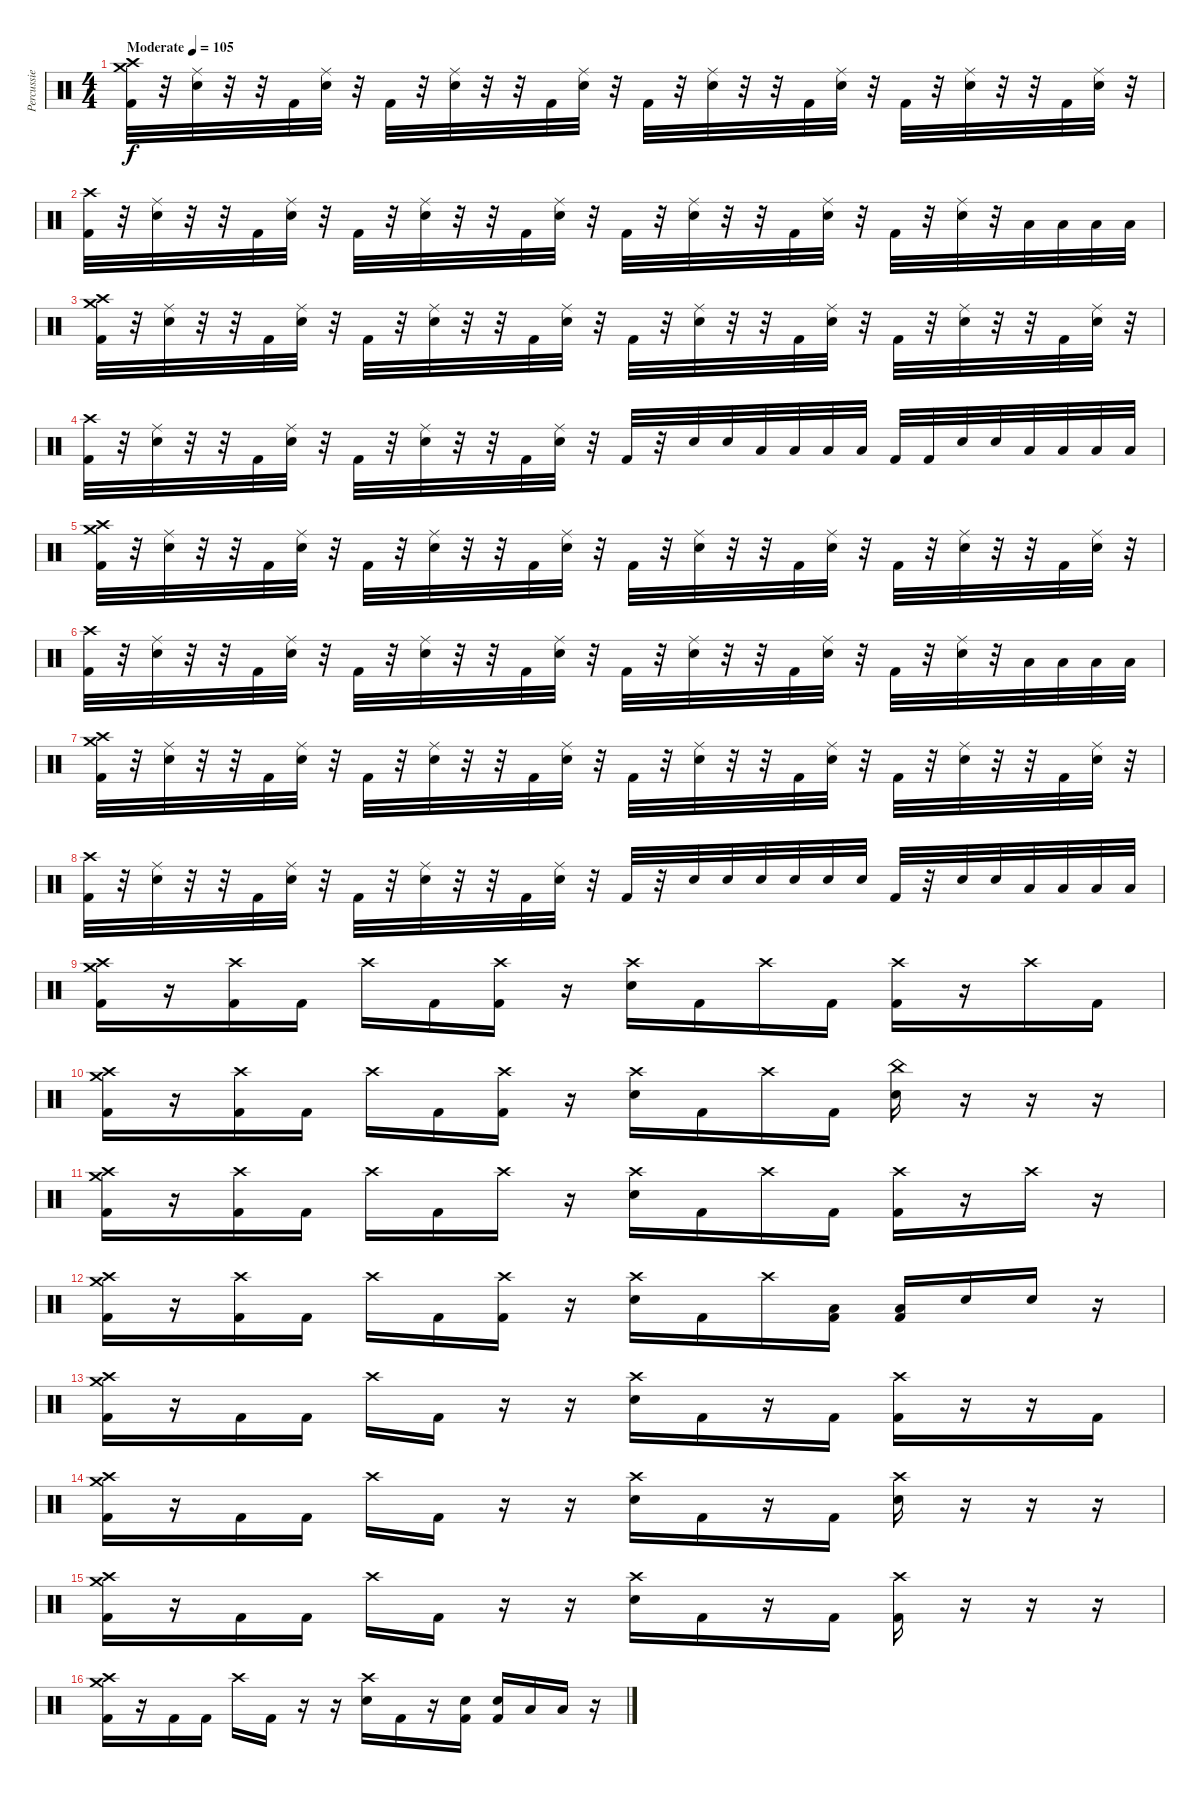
\track ("Percussie" "Percussie") {instrument percussion}
\staff {score}
\articulation defaults
\ts (4 4)
\tempo (105 "Moderate")
\clef neutral
\ks c
("Crash medium (hit)" "Crash high (hit)" "Kick (hit) 2").32{dy f} r.32 ("Ride (middle)" "Electric Snare (hit)").32 r.32 r.32 "Kick (hit) 2".32 ("Ride (middle)" "Electric Snare (hit)").32 r.32 "Kick (hit) 2".32 r.32 ("Ride (middle)" "Electric Snare (hit)").32 r.32 r.32 "Kick (hit) 2".32 ("Ride (middle)" "Electric Snare (hit)").32 r.32 "Kick (hit) 2".32 r.32 ("Ride (middle)" "Electric Snare (hit)").32 r.32 r.32 "Kick (hit) 2".32 ("Ride (middle)" "Electric Snare (hit)").32 r.32 "Kick (hit) 2".32 r.32 ("Ride (middle)" "Electric Snare (hit)").32 r.32 r.32 "Kick (hit) 2".32 ("Ride (middle)" "Electric Snare (hit)").32 r.32 |
("Crash high (hit)" "Kick (hit) 2").32 r.32 ("Ride (middle)" "Electric Snare (hit)").32 r.32 r.32 "Kick (hit) 2".32 ("Ride (middle)" "Electric Snare (hit)").32 r.32 "Kick (hit) 2".32 r.32 ("Ride (middle)" "Electric Snare (hit)").32 r.32 r.32 "Kick (hit) 2".32 ("Ride (middle)" "Electric Snare (hit)").32 r.32 "Kick (hit) 2".32 r.32 ("Ride (middle)" "Electric Snare (hit)").32 r.32 r.32 "Kick (hit) 2".32 ("Ride (middle)" "Electric Snare (hit)").32 r.32 "Kick (hit) 2".32 r.32 ("Ride (middle)" "Electric Snare (hit)").32 r.32 "Low Tom (hit)".32 "Low Tom (hit)".32 "Low Tom (hit)".32 "Low Tom (hit)".32 |
("Crash medium (hit)" "Crash high (hit)" "Kick (hit) 2").32 r.32 ("Ride (middle)" "Electric Snare (hit)").32 r.32 r.32 "Kick (hit) 2".32 ("Ride (middle)" "Electric Snare (hit)").32 r.32 "Kick (hit) 2".32 r.32 ("Ride (middle)" "Electric Snare (hit)").32 r.32 r.32 "Kick (hit) 2".32 ("Ride (middle)" "Electric Snare (hit)").32 r.32 "Kick (hit) 2".32 r.32 ("Ride (middle)" "Electric Snare (hit)").32 r.32 r.32 "Kick (hit) 2".32 ("Ride (middle)" "Electric Snare (hit)").32 r.32 "Kick (hit) 2".32 r.32 ("Ride (middle)" "Electric Snare (hit)").32 r.32 r.32 "Kick (hit) 2".32 ("Ride (middle)" "Electric Snare (hit)").32 r.32 |
("Crash high (hit)" "Kick (hit) 2").32 r.32 ("Ride (middle)" "Electric Snare (hit)").32 r.32 r.32 "Kick (hit) 2".32 ("Ride (middle)" "Electric Snare (hit)").32 r.32 "Kick (hit) 2".32 r.32 ("Ride (middle)" "Electric Snare (hit)").32 r.32 r.32 "Kick (hit) 2".32 ("Ride (middle)" "Electric Snare (hit)").32 r.32 "Kick (hit) 2".32 r.32 "Electric Snare (hit)".32 "Electric Snare (hit)".32 "Low Tom (hit)".32 "Low Tom (hit)".32 "Low Floor Tom (hit)".32 "Low Floor Tom (hit)".32 "Kick (hit) 2".32 "Kick (hit) 2".32 "Electric Snare (hit)".32 "Electric Snare (hit)".32 "Low Tom (hit)".32 "Low Tom (hit)".32 "Low Floor Tom (hit)".32 "Low Floor Tom (hit)".32 |
("Crash medium (hit)" "Crash high (hit)" "Kick (hit) 2").32 r.32 ("Ride (middle)" "Electric Snare (hit)").32 r.32 r.32 "Kick (hit) 2".32 ("Ride (middle)" "Electric Snare (hit)").32 r.32 "Kick (hit) 2".32 r.32 ("Ride (middle)" "Electric Snare (hit)").32 r.32 r.32 "Kick (hit) 2".32 ("Ride (middle)" "Electric Snare (hit)").32 r.32 "Kick (hit) 2".32 r.32 ("Ride (middle)" "Electric Snare (hit)").32 r.32 r.32 "Kick (hit) 2".32 ("Ride (middle)" "Electric Snare (hit)").32 r.32 "Kick (hit) 2".32 r.32 ("Ride (middle)" "Electric Snare (hit)").32 r.32 r.32 "Kick (hit) 2".32 ("Ride (middle)" "Electric Snare (hit)").32 r.32 |
("Crash high (hit)" "Kick (hit) 2").32 r.32 ("Ride (middle)" "Electric Snare (hit)").32 r.32 r.32 "Kick (hit) 2".32 ("Ride (middle)" "Electric Snare (hit)").32 r.32 "Kick (hit) 2".32 r.32 ("Ride (middle)" "Electric Snare (hit)").32 r.32 r.32 "Kick (hit) 2".32 ("Ride (middle)" "Electric Snare (hit)").32 r.32 "Kick (hit) 2".32 r.32 ("Ride (middle)" "Electric Snare (hit)").32 r.32 r.32 "Kick (hit) 2".32 ("Ride (middle)" "Electric Snare (hit)").32 r.32 "Kick (hit) 2".32 r.32 ("Ride (middle)" "Electric Snare (hit)").32 r.32 "Low Tom (hit)".32 "Low Tom (hit)".32 "Low Tom (hit)".32 "Low Tom (hit)".32 |
("Crash medium (hit)" "Crash high (hit)" "Kick (hit) 2").32 r.32 ("Ride (middle)" "Electric Snare (hit)").32 r.32 r.32 "Kick (hit) 2".32 ("Ride (middle)" "Electric Snare (hit)").32 r.32 "Kick (hit) 2".32 r.32 ("Ride (middle)" "Electric Snare (hit)").32 r.32 r.32 "Kick (hit) 2".32 ("Ride (middle)" "Electric Snare (hit)").32 r.32 "Kick (hit) 2".32 r.32 ("Ride (middle)" "Electric Snare (hit)").32 r.32 r.32 "Kick (hit) 2".32 ("Ride (middle)" "Electric Snare (hit)").32 r.32 "Kick (hit) 2".32 r.32 ("Ride (middle)" "Electric Snare (hit)").32 r.32 r.32 "Kick (hit) 2".32 ("Ride (middle)" "Electric Snare (hit)").32 r.32 |
("Crash high (hit)" "Kick (hit) 2").32 r.32 ("Ride (middle)" "Electric Snare (hit)").32 r.32 r.32 "Kick (hit) 2".32 ("Ride (middle)" "Electric Snare (hit)").32 r.32 "Kick (hit) 2".32 r.32 ("Ride (middle)" "Electric Snare (hit)").32 r.32 r.32 "Kick (hit) 2".32 ("Ride (middle)" "Electric Snare (hit)").32 r.32 "Kick (hit) 2".32 r.32 "Electric Snare (hit)".32 "Electric Snare (hit)".32 "Electric Snare (hit)".32 "Electric Snare (hit)".32 "Electric Snare (hit)".32 "Electric Snare (hit)".32 "Kick (hit) 2".32 r.32 "Electric Snare (hit)".32 "Electric Snare (hit)".32 "Low Tom (hit)".32 "Low Tom (hit)".32 "Low Floor Tom (hit)".32 "Low Floor Tom (hit)".32 |
("Crash medium (hit)" "Crash high (hit)" "Kick (hit) 2").16 r.16 ("Crash high (hit)" "Kick (hit) 2").16 "Kick (hit) 2".16 "Crash high (hit)".16 "Kick (hit) 2".16 ("Crash high (hit)" "Kick (hit) 2").16 r.16 ("Crash high (hit)" "Electric Snare (hit)").16 "Kick (hit) 2".16 "Crash high (hit)".16 "Kick (hit) 2".16 ("Crash high (hit)" "Kick (hit) 2").16 r.16 "Crash high (hit)".16 "Kick (hit) 2".16 |
("Crash medium (hit)" "Crash high (hit)" "Kick (hit) 2").16 r.16 ("Crash high (hit)" "Kick (hit) 2").16 "Kick (hit) 2".16 "Crash high (hit)".16 "Kick (hit) 2".16 ("Crash high (hit)" "Kick (hit) 2").16 r.16 ("Crash high (hit)" "Electric Snare (hit)").16 "Kick (hit) 2".16 "Crash high (hit)".16 "Kick (hit) 2".16 ("China (hit)" "Electric Snare (hit)").16 r.16 r.16 r.16 |
("Crash medium (hit)" "Crash high (hit)" "Kick (hit) 2").16 r.16 ("Crash high (hit)" "Kick (hit) 2").16 "Kick (hit) 2".16 "Crash high (hit)".16 "Kick (hit) 2".16 "Crash high (hit)".16 r.16 ("Crash high (hit)" "Electric Snare (hit)").16 "Kick (hit) 2".16 "Crash high (hit)".16 "Kick (hit) 2".16 ("Crash high (hit)" "Kick (hit) 2").16 r.16 "Crash high (hit)".16 r.16 |
("Crash medium (hit)" "Crash high (hit)" "Kick (hit) 2").16 r.16 ("Crash high (hit)" "Kick (hit) 2").16 "Kick (hit) 2".16 "Crash high (hit)".16 "Kick (hit) 2".16 ("Crash high (hit)" "Kick (hit) 2").16 r.16 ("Crash high (hit)" "Electric Snare (hit)").16 "Kick (hit) 2".16 "Crash high (hit)".16 ("Low Tom (hit)" "Kick (hit) 2").16 ("Low Tom (hit)" "Kick (hit) 2").16 "Electric Snare (hit)".16 "Electric Snare (hit)".16 r.16 |
("Crash medium (hit)" "Crash high (hit)" "Kick (hit) 2").16 r.16 "Kick (hit) 2".16 "Kick (hit) 2".16 "Crash high (hit)".16 "Kick (hit) 2".16 r.16 r.16 ("Crash high (hit)" "Electric Snare (hit)").16 "Kick (hit) 2".16 r.16 "Kick (hit) 2".16 ("Crash high (hit)" "Kick (hit) 2").16 r.16 r.16 "Kick (hit) 2".16 |
("Crash medium (hit)" "Crash high (hit)" "Kick (hit) 2").16 r.16 "Kick (hit) 2".16 "Kick (hit) 2".16 "Crash high (hit)".16 "Kick (hit) 2".16 r.16 r.16 ("Crash high (hit)" "Electric Snare (hit)").16 "Kick (hit) 2".16 r.16 "Kick (hit) 2".16 ("Crash high (hit)" "Electric Snare (hit)").16 r.16 r.16 r.16 |
("Crash medium (hit)" "Crash high (hit)" "Kick (hit) 2").16 r.16 "Kick (hit) 2".16 "Kick (hit) 2".16 "Crash high (hit)".16 "Kick (hit) 2".16 r.16 r.16 ("Crash high (hit)" "Electric Snare (hit)").16 "Kick (hit) 2".16 r.16 "Kick (hit) 2".16 ("Crash high (hit)" "Kick (hit) 2").16 r.16 r.16 r.16 |
("Crash medium (hit)" "Crash high (hit)" "Kick (hit) 2").16 r.16 "Kick (hit) 2".16 "Kick (hit) 2".16 "Crash high (hit)".16 "Kick (hit) 2".16 r.16 r.16 ("Crash high (hit)" "Electric Snare (hit)").16 "Kick (hit) 2".16 r.16 ("Electric Snare (hit)" "Kick (hit) 2").16 ("Electric Snare (hit)" "Kick (hit) 2").16 "Low Tom (hit)".16 "Low Tom (hit)".16 r.16
